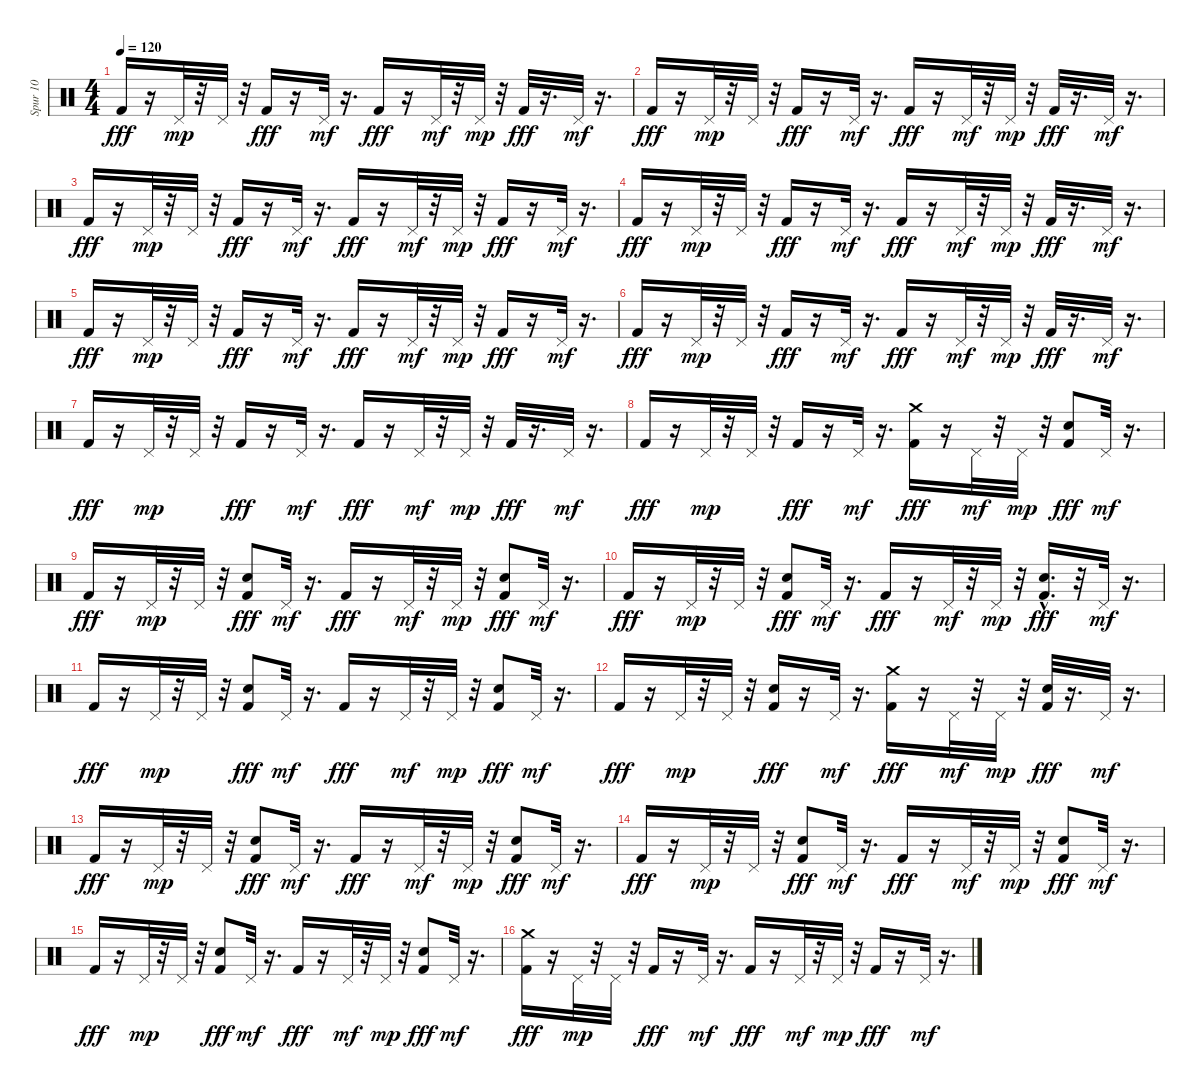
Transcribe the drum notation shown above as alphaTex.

\track ("Spur 10" "Spur 10") {instrument percussion}
\staff {score}
\articulation defaults
\ts (4 4)
\tempo 120
\clef neutral
\ks c "Kick (hit) 2".16{dy fff}
r.16 "Pedal Hi-Hat (hit)".32{dy mp} r.32 "Pedal Hi-Hat (hit)".32 r.32 "Kick (hit) 2".16{dy fff} r.16 "Pedal Hi-Hat (hit)".32{dy mf} r.16{d} "Kick (hit) 2".16{dy fff} r.16 "Pedal Hi-Hat (hit)".32{dy mf} r.32 "Pedal Hi-Hat (hit)".32{dy mp} r.32 "Kick (hit) 2".32{dy fff} r.16{d} "Pedal Hi-Hat (hit)".32{dy mf} r.16{d} |
"Kick (hit) 2".16{dy fff} r.16 "Pedal Hi-Hat (hit)".32{dy mp} r.32 "Pedal Hi-Hat (hit)".32 r.32 "Kick (hit) 2".16{dy fff} r.16 "Pedal Hi-Hat (hit)".32{dy mf} r.16{d} "Kick (hit) 2".16{dy fff} r.16 "Pedal Hi-Hat (hit)".32{dy mf} r.32 "Pedal Hi-Hat (hit)".32{dy mp} r.32 "Kick (hit) 2".32{dy fff} r.16{d} "Pedal Hi-Hat (hit)".32{dy mf} r.16{d} |
"Kick (hit) 2".16{dy fff} r.16 "Pedal Hi-Hat (hit)".32{dy mp} r.32 "Pedal Hi-Hat (hit)".32 r.32 "Kick (hit) 2".16{dy fff} r.16 "Pedal Hi-Hat (hit)".32{dy mf} r.16{d} "Kick (hit) 2".16{dy fff} r.16 "Pedal Hi-Hat (hit)".32{dy mf} r.32 "Pedal Hi-Hat (hit)".32{dy mp} r.32 "Kick (hit) 2".16{dy fff} r.16 "Pedal Hi-Hat (hit)".32{dy mf} r.16{d} |
"Kick (hit) 2".16{dy fff} r.16 "Pedal Hi-Hat (hit)".32{dy mp} r.32 "Pedal Hi-Hat (hit)".32 r.32 "Kick (hit) 2".16{dy fff} r.16 "Pedal Hi-Hat (hit)".32{dy mf} r.16{d} "Kick (hit) 2".16{dy fff} r.16 "Pedal Hi-Hat (hit)".32{dy mf} r.32 "Pedal Hi-Hat (hit)".32{dy mp} r.32 "Kick (hit) 2".32{dy fff} r.16{d} "Pedal Hi-Hat (hit)".32{dy mf} r.16{d} |
"Kick (hit) 2".16{dy fff} r.16 "Pedal Hi-Hat (hit)".32{dy mp} r.32 "Pedal Hi-Hat (hit)".32 r.32 "Kick (hit) 2".16{dy fff} r.16 "Pedal Hi-Hat (hit)".32{dy mf} r.16{d} "Kick (hit) 2".16{dy fff} r.16 "Pedal Hi-Hat (hit)".32{dy mf} r.32 "Pedal Hi-Hat (hit)".32{dy mp} r.32 "Kick (hit) 2".16{dy fff} r.16 "Pedal Hi-Hat (hit)".32{dy mf} r.16{d} |
"Kick (hit) 2".16{dy fff} r.16 "Pedal Hi-Hat (hit)".32{dy mp} r.32 "Pedal Hi-Hat (hit)".32 r.32 "Kick (hit) 2".16{dy fff} r.16 "Pedal Hi-Hat (hit)".32{dy mf} r.16{d} "Kick (hit) 2".16{dy fff} r.16 "Pedal Hi-Hat (hit)".32{dy mf} r.32 "Pedal Hi-Hat (hit)".32{dy mp} r.32 "Kick (hit) 2".32{dy fff} r.16{d} "Pedal Hi-Hat (hit)".32{dy mf} r.16{d} |
"Kick (hit) 2".16{dy fff} r.16 "Pedal Hi-Hat (hit)".32{dy mp} r.32 "Pedal Hi-Hat (hit)".32 r.32 "Kick (hit) 2".16{dy fff} r.16 "Pedal Hi-Hat (hit)".32{dy mf} r.16{d} "Kick (hit) 2".16{dy fff} r.16 "Pedal Hi-Hat (hit)".32{dy mf} r.32 "Pedal Hi-Hat (hit)".32{dy mp} r.32 "Kick (hit) 2".32{dy fff} r.16{d} "Pedal Hi-Hat (hit)".32{dy mf} r.16{d} |
"Kick (hit) 2".16{dy fff} r.16 "Pedal Hi-Hat (hit)".32{dy mp} r.32 "Pedal Hi-Hat (hit)".32 r.32 "Kick (hit) 2".16{dy fff} r.16 "Pedal Hi-Hat (hit)".32{dy mf} r.16{d} ("Kick (hit) 2" "Crash medium (hit)").16{dy fff} r.16 "Pedal Hi-Hat (hit)".32{dy mf} r.32 "Pedal Hi-Hat (hit)".32{dy mp} r.32 ("Electric Snare (hit)" "Kick (hit) 2").8{dy fff} "Pedal Hi-Hat (hit)".32{dy mf} r.16{d} |
"Kick (hit) 2".16{dy fff} r.16 "Pedal Hi-Hat (hit)".32{dy mp} r.32 "Pedal Hi-Hat (hit)".32 r.32 ("Electric Snare (hit)" "Kick (hit) 2").8{dy fff} "Pedal Hi-Hat (hit)".32{dy mf} r.16{d} "Kick (hit) 2".16{dy fff} r.16 "Pedal Hi-Hat (hit)".32{dy mf} r.32 "Pedal Hi-Hat (hit)".32{dy mp} r.32 ("Electric Snare (hit)" "Kick (hit) 2").8{dy fff} "Pedal Hi-Hat (hit)".32{dy mf} r.16{d} |
"Kick (hit) 2".16{dy fff} r.16 "Pedal Hi-Hat (hit)".32{dy mp} r.32 "Pedal Hi-Hat (hit)".32 r.32 ("Electric Snare (hit)" "Kick (hit) 2").8{dy fff} "Pedal Hi-Hat (hit)".32{dy mf} r.16{d} "Kick (hit) 2".16{dy fff} r.16 "Pedal Hi-Hat (hit)".32{dy mf} r.32 "Pedal Hi-Hat (hit)".32{dy mp} r.32 ("Electric Snare (hit)"{hac} "Kick (hit) 2").16{d dy fff} r.32 "Pedal Hi-Hat (hit)".32{dy mf} r.16{d} |
"Kick (hit) 2".16{dy fff} r.16 "Pedal Hi-Hat (hit)".32{dy mp} r.32 "Pedal Hi-Hat (hit)".32 r.32 ("Electric Snare (hit)" "Kick (hit) 2").8{dy fff} "Pedal Hi-Hat (hit)".32{dy mf} r.16{d} "Kick (hit) 2".16{dy fff} r.16 "Pedal Hi-Hat (hit)".32{dy mf} r.32 "Pedal Hi-Hat (hit)".32{dy mp} r.32 ("Electric Snare (hit)" "Kick (hit) 2").8{dy fff} "Pedal Hi-Hat (hit)".32{dy mf} r.16{d} |
"Kick (hit) 2".16{dy fff} r.16 "Pedal Hi-Hat (hit)".32{dy mp} r.32 "Pedal Hi-Hat (hit)".32 r.32 ("Electric Snare (hit)" "Kick (hit) 2").16{dy fff} r.16 "Pedal Hi-Hat (hit)".32{dy mf} r.16{d} ("Kick (hit) 2" "Crash medium (hit)").16{dy fff} r.16 "Pedal Hi-Hat (hit)".32{dy mf} r.32 "Pedal Hi-Hat (hit)".32{dy mp} r.32 ("Electric Snare (hit)" "Kick (hit) 2").32{dy fff} r.16{d} "Pedal Hi-Hat (hit)".32{dy mf} r.16{d} |
"Kick (hit) 2".16{dy fff} r.16 "Pedal Hi-Hat (hit)".32{dy mp} r.32 "Pedal Hi-Hat (hit)".32 r.32 ("Electric Snare (hit)" "Kick (hit) 2").8{dy fff} "Pedal Hi-Hat (hit)".32{dy mf} r.16{d} "Kick (hit) 2".16{dy fff} r.16 "Pedal Hi-Hat (hit)".32{dy mf} r.32 "Pedal Hi-Hat (hit)".32{dy mp} r.32 ("Electric Snare (hit)" "Kick (hit) 2").8{dy fff} "Pedal Hi-Hat (hit)".32{dy mf} r.16{d} |
"Kick (hit) 2".16{dy fff} r.16 "Pedal Hi-Hat (hit)".32{dy mp} r.32 "Pedal Hi-Hat (hit)".32 r.32 ("Electric Snare (hit)" "Kick (hit) 2").8{dy fff} "Pedal Hi-Hat (hit)".32{dy mf} r.16{d} "Kick (hit) 2".16{dy fff} r.16 "Pedal Hi-Hat (hit)".32{dy mf} r.32 "Pedal Hi-Hat (hit)".32{dy mp} r.32 ("Electric Snare (hit)" "Kick (hit) 2").8{dy fff} "Pedal Hi-Hat (hit)".32{dy mf} r.16{d} |
"Kick (hit) 2".16{dy fff} r.16 "Pedal Hi-Hat (hit)".32{dy mp} r.32 "Pedal Hi-Hat (hit)".32 r.32 ("Electric Snare (hit)" "Kick (hit) 2").8{dy fff} "Pedal Hi-Hat (hit)".32{dy mf} r.16{d} "Kick (hit) 2".16{dy fff} r.16 "Pedal Hi-Hat (hit)".32{dy mf} r.32 "Pedal Hi-Hat (hit)".32{dy mp} r.32 ("Electric Snare (hit)" "Kick (hit) 2").8{dy fff} "Pedal Hi-Hat (hit)".32{dy mf} r.16{d} |
("Kick (hit) 2" "Crash medium (hit)").16{dy fff} r.16 "Pedal Hi-Hat (hit)".32{dy mp} r.32 "Pedal Hi-Hat (hit)".32 r.32 "Kick (hit) 2".16{dy fff} r.16 "Pedal Hi-Hat (hit)".32{dy mf} r.16{d} "Kick (hit) 2".16{dy fff} r.16 "Pedal Hi-Hat (hit)".32{dy mf} r.32 "Pedal Hi-Hat (hit)".32{dy mp} r.32 "Kick (hit) 2".16{dy fff} r.16 "Pedal Hi-Hat (hit)".32{dy mf} r.16{d}
